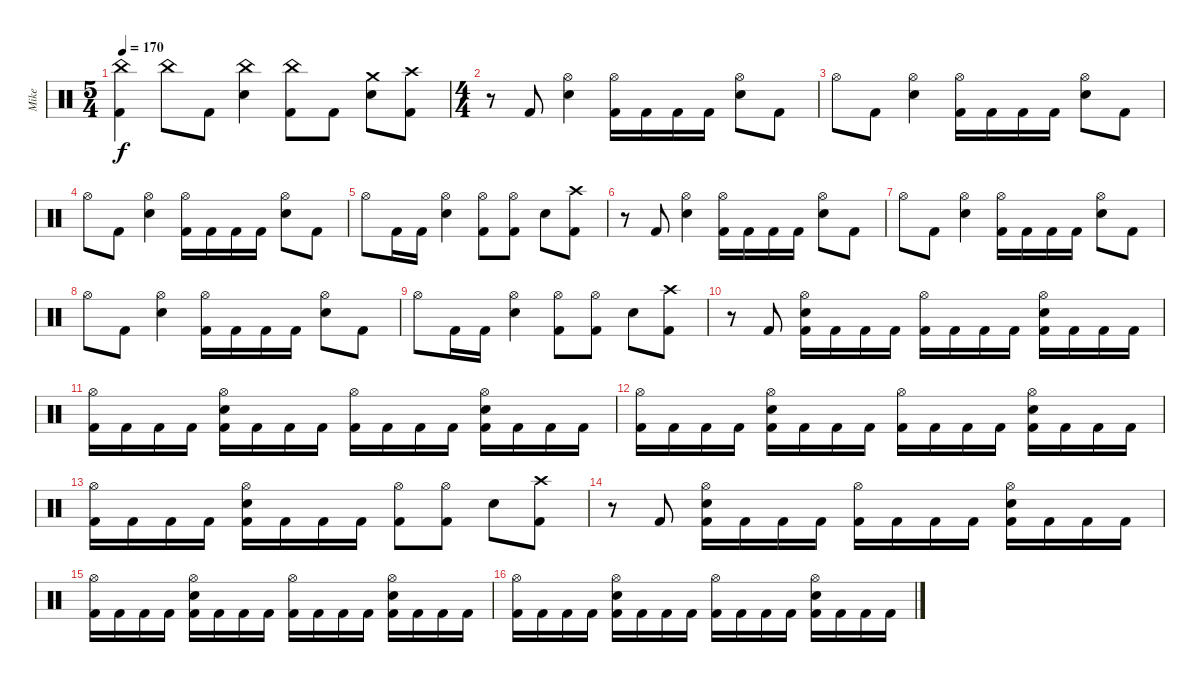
\track ("Mike" "Mike") {instrument percussion}
\staff {score}
\articulation defaults
\ts (5 4)
\tempo 170
\clef neutral
\ks c
("Kick (hit) 2" "China (hit)").4{dy f} "China (hit)".8 "Kick (hit) 2".8 ("Electric Snare (hit)" "China (hit)").4 ("Kick (hit) 2" "China (hit)").8 "Kick (hit) 2".8 ("Electric Snare (hit)" "Crash medium (hit)").8 ("Kick (hit) 2" "Crash high (hit)").8 |
\ts (4 4)
r.8 "Kick (hit) 2".8 ("Electric Snare (hit)" "Hi-Hat (open)").4 ("Kick (hit) 2" "Hi-Hat (open)").16 "Kick (hit) 2".16 "Kick (hit) 2".16 "Kick (hit) 2".16 ("Electric Snare (hit)" "Hi-Hat (open)").8 "Kick (hit) 2".8 |
"Hi-Hat (open)".8 "Kick (hit) 2".8 ("Electric Snare (hit)" "Hi-Hat (open)").4 ("Kick (hit) 2" "Hi-Hat (open)").16 "Kick (hit) 2".16 "Kick (hit) 2".16 "Kick (hit) 2".16 ("Electric Snare (hit)" "Hi-Hat (open)").8 "Kick (hit) 2".8 |
"Hi-Hat (open)".8 "Kick (hit) 2".8 ("Electric Snare (hit)" "Hi-Hat (open)").4 ("Kick (hit) 2" "Hi-Hat (open)").16 "Kick (hit) 2".16 "Kick (hit) 2".16 "Kick (hit) 2".16 ("Electric Snare (hit)" "Hi-Hat (open)").8 "Kick (hit) 2".8 |
"Hi-Hat (open)".8 "Kick (hit) 2".16 "Kick (hit) 2".16 ("Electric Snare (hit)" "Hi-Hat (open)").4 ("Kick (hit) 2" "Hi-Hat (open)").8 ("Kick (hit) 2" "Hi-Hat (open)").8 "Electric Snare (hit)".8 ("Kick (hit) 2" "Crash high (hit)").8 |
r.8 "Kick (hit) 2".8 ("Electric Snare (hit)" "Hi-Hat (open)").4 ("Kick (hit) 2" "Hi-Hat (open)").16 "Kick (hit) 2".16 "Kick (hit) 2".16 "Kick (hit) 2".16 ("Electric Snare (hit)" "Hi-Hat (open)").8 "Kick (hit) 2".8 |
"Hi-Hat (open)".8 "Kick (hit) 2".8 ("Electric Snare (hit)" "Hi-Hat (open)").4 ("Kick (hit) 2" "Hi-Hat (open)").16 "Kick (hit) 2".16 "Kick (hit) 2".16 "Kick (hit) 2".16 ("Electric Snare (hit)" "Hi-Hat (open)").8 "Kick (hit) 2".8 |
"Hi-Hat (open)".8 "Kick (hit) 2".8 ("Electric Snare (hit)" "Hi-Hat (open)").4 ("Kick (hit) 2" "Hi-Hat (open)").16 "Kick (hit) 2".16 "Kick (hit) 2".16 "Kick (hit) 2".16 ("Electric Snare (hit)" "Hi-Hat (open)").8 "Kick (hit) 2".8 |
"Hi-Hat (open)".8 "Kick (hit) 2".16 "Kick (hit) 2".16 ("Electric Snare (hit)" "Hi-Hat (open)").4 ("Kick (hit) 2" "Hi-Hat (open)").8 ("Kick (hit) 2" "Hi-Hat (open)").8 "Electric Snare (hit)".8 ("Kick (hit) 2" "Crash high (hit)").8 |
r.8 "Kick (hit) 2".8 ("Kick (hit) 2" "Electric Snare (hit)" "Hi-Hat (open)").16 "Kick (hit) 2".16 "Kick (hit) 2".16 "Kick (hit) 2".16 ("Kick (hit) 2" "Hi-Hat (open)").16 "Kick (hit) 2".16 "Kick (hit) 2".16 "Kick (hit) 2".16 ("Kick (hit) 2" "Electric Snare (hit)" "Hi-Hat (open)").16 "Kick (hit) 2".16 "Kick (hit) 2".16 "Kick (hit) 2".16 |
("Kick (hit) 2" "Hi-Hat (open)").16 "Kick (hit) 2".16 "Kick (hit) 2".16 "Kick (hit) 2".16 ("Kick (hit) 2" "Electric Snare (hit)" "Hi-Hat (open)").16 "Kick (hit) 2".16 "Kick (hit) 2".16 "Kick (hit) 2".16 ("Kick (hit) 2" "Hi-Hat (open)").16 "Kick (hit) 2".16 "Kick (hit) 2".16 "Kick (hit) 2".16 ("Kick (hit) 2" "Electric Snare (hit)" "Hi-Hat (open)").16 "Kick (hit) 2".16 "Kick (hit) 2".16 "Kick (hit) 2".16 |
("Kick (hit) 2" "Hi-Hat (open)").16 "Kick (hit) 2".16 "Kick (hit) 2".16 "Kick (hit) 2".16 ("Kick (hit) 2" "Electric Snare (hit)" "Hi-Hat (open)").16 "Kick (hit) 2".16 "Kick (hit) 2".16 "Kick (hit) 2".16 ("Kick (hit) 2" "Hi-Hat (open)").16 "Kick (hit) 2".16 "Kick (hit) 2".16 "Kick (hit) 2".16 ("Kick (hit) 2" "Electric Snare (hit)" "Hi-Hat (open)").16 "Kick (hit) 2".16 "Kick (hit) 2".16 "Kick (hit) 2".16 |
("Kick (hit) 2" "Hi-Hat (open)").16 "Kick (hit) 2".16 "Kick (hit) 2".16 "Kick (hit) 2".16 ("Kick (hit) 2" "Electric Snare (hit)" "Hi-Hat (open)").16 "Kick (hit) 2".16 "Kick (hit) 2".16 "Kick (hit) 2".16 ("Kick (hit) 2" "Hi-Hat (open)").8 ("Kick (hit) 2" "Hi-Hat (open)").8 "Electric Snare (hit)".8 ("Kick (hit) 2" "Crash high (hit)").8 |
r.8 "Kick (hit) 2".8 ("Kick (hit) 2" "Electric Snare (hit)" "Hi-Hat (open)").16 "Kick (hit) 2".16 "Kick (hit) 2".16 "Kick (hit) 2".16 ("Kick (hit) 2" "Hi-Hat (open)").16 "Kick (hit) 2".16 "Kick (hit) 2".16 "Kick (hit) 2".16 ("Kick (hit) 2" "Electric Snare (hit)" "Hi-Hat (open)").16 "Kick (hit) 2".16 "Kick (hit) 2".16 "Kick (hit) 2".16 |
("Kick (hit) 2" "Hi-Hat (open)").16 "Kick (hit) 2".16 "Kick (hit) 2".16 "Kick (hit) 2".16 ("Kick (hit) 2" "Electric Snare (hit)" "Hi-Hat (open)").16 "Kick (hit) 2".16 "Kick (hit) 2".16 "Kick (hit) 2".16 ("Kick (hit) 2" "Hi-Hat (open)").16 "Kick (hit) 2".16 "Kick (hit) 2".16 "Kick (hit) 2".16 ("Kick (hit) 2" "Electric Snare (hit)" "Hi-Hat (open)").16 "Kick (hit) 2".16 "Kick (hit) 2".16 "Kick (hit) 2".16 |
("Kick (hit) 2" "Hi-Hat (open)").16 "Kick (hit) 2".16 "Kick (hit) 2".16 "Kick (hit) 2".16 ("Kick (hit) 2" "Electric Snare (hit)" "Hi-Hat (open)").16 "Kick (hit) 2".16 "Kick (hit) 2".16 "Kick (hit) 2".16 ("Kick (hit) 2" "Hi-Hat (open)").16 "Kick (hit) 2".16 "Kick (hit) 2".16 "Kick (hit) 2".16 ("Kick (hit) 2" "Electric Snare (hit)" "Hi-Hat (open)").16 "Kick (hit) 2".16 "Kick (hit) 2".16 "Kick (hit) 2".16
